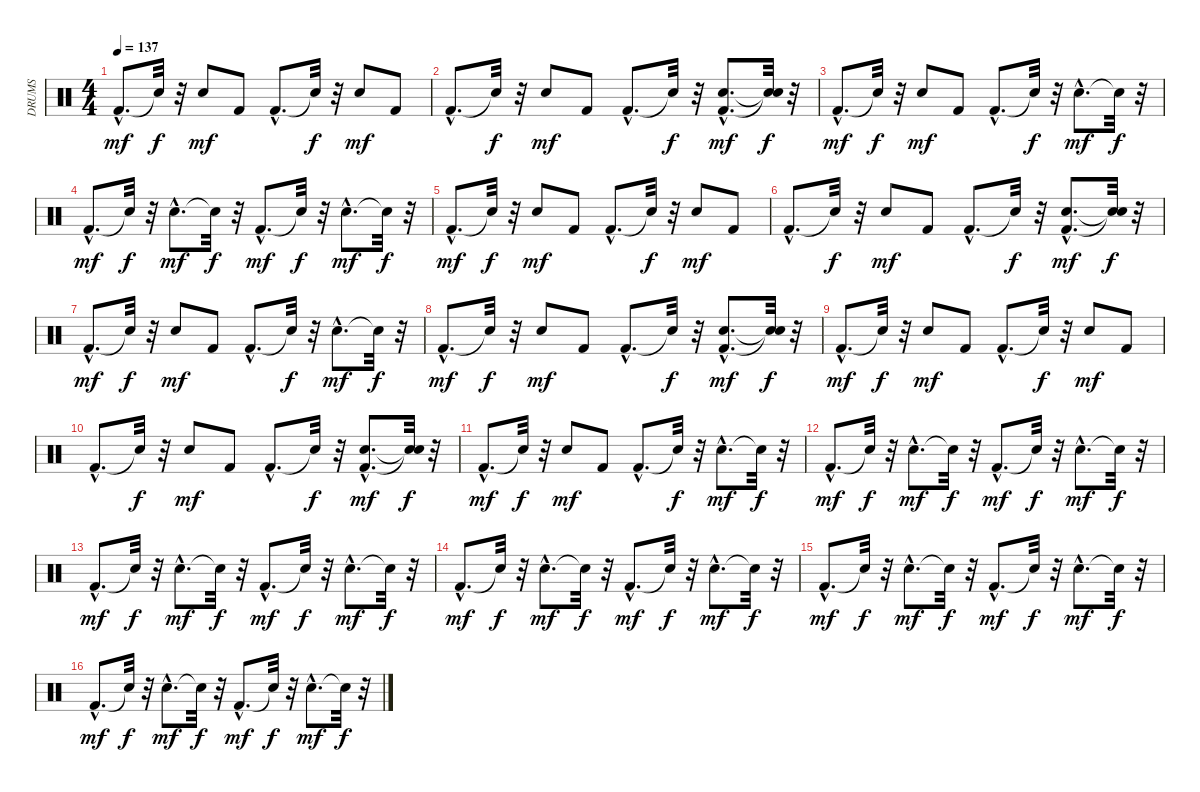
\track ("DRUMS" "DRUMS") {instrument percussion}
\staff {score}
\articulation defaults
\ts (4 4)
\tempo 137
\clef neutral
\ks c "Kick (hit) 2"{hac}.8{d dy mf} "Snare (hit)"{t}.32{dy f}
r.32 "Snare (hit) 2".8{dy mf} "Kick (hit) 2".8 "Kick (hit) 2"{hac}.8{d} "Snare (hit)"{t}.32{dy f} r.32 "Snare (hit) 2".8{dy mf} "Kick (hit) 2".8 |
"Kick (hit) 2"{hac}.8{d} "Snare (hit)"{t}.32{dy f} r.32 "Snare (hit) 2".8{dy mf} "Kick (hit) 2".8 "Kick (hit) 2"{hac}.8{d} "Snare (hit)"{t}.32{dy f} r.32 ("Snare (hit) 2"{hac} "Kick (hit) 2"{hac}).8{d dy mf} ("Snare (hit)"{t} "Snare (hit)"{t}).32{dy f} r.32 |
"Kick (hit) 2"{hac}.8{d dy mf} "Snare (hit)"{t}.32{dy f} r.32 "Snare (hit) 2".8{dy mf} "Kick (hit) 2".8 "Kick (hit) 2"{hac}.8{d} "Snare (hit)"{t}.32{dy f} r.32 "Snare (hit) 2"{hac}.8{d dy mf} "Snare (hit)"{t}.32{dy f} r.32 |
"Kick (hit) 2"{hac}.8{d dy mf} "Snare (hit)"{t}.32{dy f} r.32 "Snare (hit) 2"{hac}.8{d dy mf} "Snare (hit)"{t}.32{dy f} r.32 "Kick (hit) 2"{hac}.8{d dy mf} "Snare (hit)"{t}.32{dy f} r.32 "Snare (hit) 2"{hac}.8{d dy mf} "Snare (hit)"{t}.32{dy f} r.32 |
"Kick (hit) 2"{hac}.8{d dy mf} "Snare (hit)"{t}.32{dy f} r.32 "Snare (hit) 2".8{dy mf} "Kick (hit) 2".8 "Kick (hit) 2"{hac}.8{d} "Snare (hit)"{t}.32{dy f} r.32 "Snare (hit) 2".8{dy mf} "Kick (hit) 2".8 |
"Kick (hit) 2"{hac}.8{d} "Snare (hit)"{t}.32{dy f} r.32 "Snare (hit) 2".8{dy mf} "Kick (hit) 2".8 "Kick (hit) 2"{hac}.8{d} "Snare (hit)"{t}.32{dy f} r.32 ("Snare (hit) 2"{hac} "Kick (hit) 2"{hac}).8{d dy mf} ("Snare (hit)"{t} "Snare (hit)"{t}).32{dy f} r.32 |
"Kick (hit) 2"{hac}.8{d dy mf} "Snare (hit)"{t}.32{dy f} r.32 "Snare (hit) 2".8{dy mf} "Kick (hit) 2".8 "Kick (hit) 2"{hac}.8{d} "Snare (hit)"{t}.32{dy f} r.32 "Snare (hit) 2"{hac}.8{d dy mf} "Snare (hit)"{t}.32{dy f} r.32 |
"Kick (hit) 2"{hac}.8{d dy mf} "Snare (hit)"{t}.32{dy f} r.32 "Snare (hit) 2".8{dy mf} "Kick (hit) 2".8 "Kick (hit) 2"{hac}.8{d} "Snare (hit)"{t}.32{dy f} r.32 ("Kick (hit) 2"{hac} "Snare (hit) 2"{hac}).8{d dy mf} ("Snare (hit)"{t} "Snare (hit)"{t}).32{dy f} r.32 |
"Kick (hit) 2"{hac}.8{d dy mf} "Snare (hit)"{t}.32{dy f} r.32 "Snare (hit) 2".8{dy mf} "Kick (hit) 2".8 "Kick (hit) 2"{hac}.8{d} "Snare (hit)"{t}.32{dy f} r.32 "Snare (hit) 2".8{dy mf} "Kick (hit) 2".8 |
"Kick (hit) 2"{hac}.8{d} "Snare (hit)"{t}.32{dy f} r.32 "Snare (hit) 2".8{dy mf} "Kick (hit) 2".8 "Kick (hit) 2"{hac}.8{d} "Snare (hit)"{t}.32{dy f} r.32 ("Kick (hit) 2"{hac} "Snare (hit) 2"{hac}).8{d dy mf} ("Snare (hit)"{t} "Snare (hit)"{t}).32{dy f} r.32 |
"Kick (hit) 2"{hac}.8{d dy mf} "Snare (hit)"{t}.32{dy f} r.32 "Snare (hit) 2".8{dy mf} "Kick (hit) 2".8 "Kick (hit) 2"{hac}.8{d} "Snare (hit)"{t}.32{dy f} r.32 "Snare (hit) 2"{hac}.8{d dy mf} "Snare (hit)"{t}.32{dy f} r.32 |
"Kick (hit) 2"{hac}.8{d dy mf} "Snare (hit)"{t}.32{dy f} r.32 "Snare (hit) 2"{hac}.8{d dy mf} "Snare (hit)"{t}.32{dy f} r.32 "Kick (hit) 2"{hac}.8{d dy mf} "Snare (hit)"{t}.32{dy f} r.32 "Snare (hit) 2"{hac}.8{d dy mf} "Snare (hit)"{t}.32{dy f} r.32 |
"Kick (hit) 2"{hac}.8{d dy mf} "Snare (hit)"{t}.32{dy f} r.32 "Snare (hit) 2"{hac}.8{d dy mf} "Snare (hit)"{t}.32{dy f} r.32 "Kick (hit) 2"{hac}.8{d dy mf} "Snare (hit)"{t}.32{dy f} r.32 "Snare (hit) 2"{hac}.8{d dy mf} "Snare (hit)"{t}.32{dy f} r.32 |
"Kick (hit) 2"{hac}.8{d dy mf} "Snare (hit)"{t}.32{dy f} r.32 "Snare (hit) 2"{hac}.8{d dy mf} "Snare (hit)"{t}.32{dy f} r.32 "Kick (hit) 2"{hac}.8{d dy mf} "Snare (hit)"{t}.32{dy f} r.32 "Snare (hit) 2"{hac}.8{d dy mf} "Snare (hit)"{t}.32{dy f} r.32 |
"Kick (hit) 2"{hac}.8{d dy mf} "Snare (hit)"{t}.32{dy f} r.32 "Snare (hit) 2"{hac}.8{d dy mf} "Snare (hit)"{t}.32{dy f} r.32 "Kick (hit) 2"{hac}.8{d dy mf} "Snare (hit)"{t}.32{dy f} r.32 "Snare (hit) 2"{hac}.8{d dy mf} "Snare (hit)"{t}.32{dy f} r.32 |
"Kick (hit) 2"{hac}.8{d dy mf} "Snare (hit)"{t}.32{dy f} r.32 "Snare (hit) 2"{hac}.8{d dy mf} "Snare (hit)"{t}.32{dy f} r.32 "Kick (hit) 2"{hac}.8{d dy mf} "Snare (hit)"{t}.32{dy f} r.32 "Snare (hit) 2"{hac}.8{d dy mf} "Snare (hit)"{t}.32{dy f} r.32
